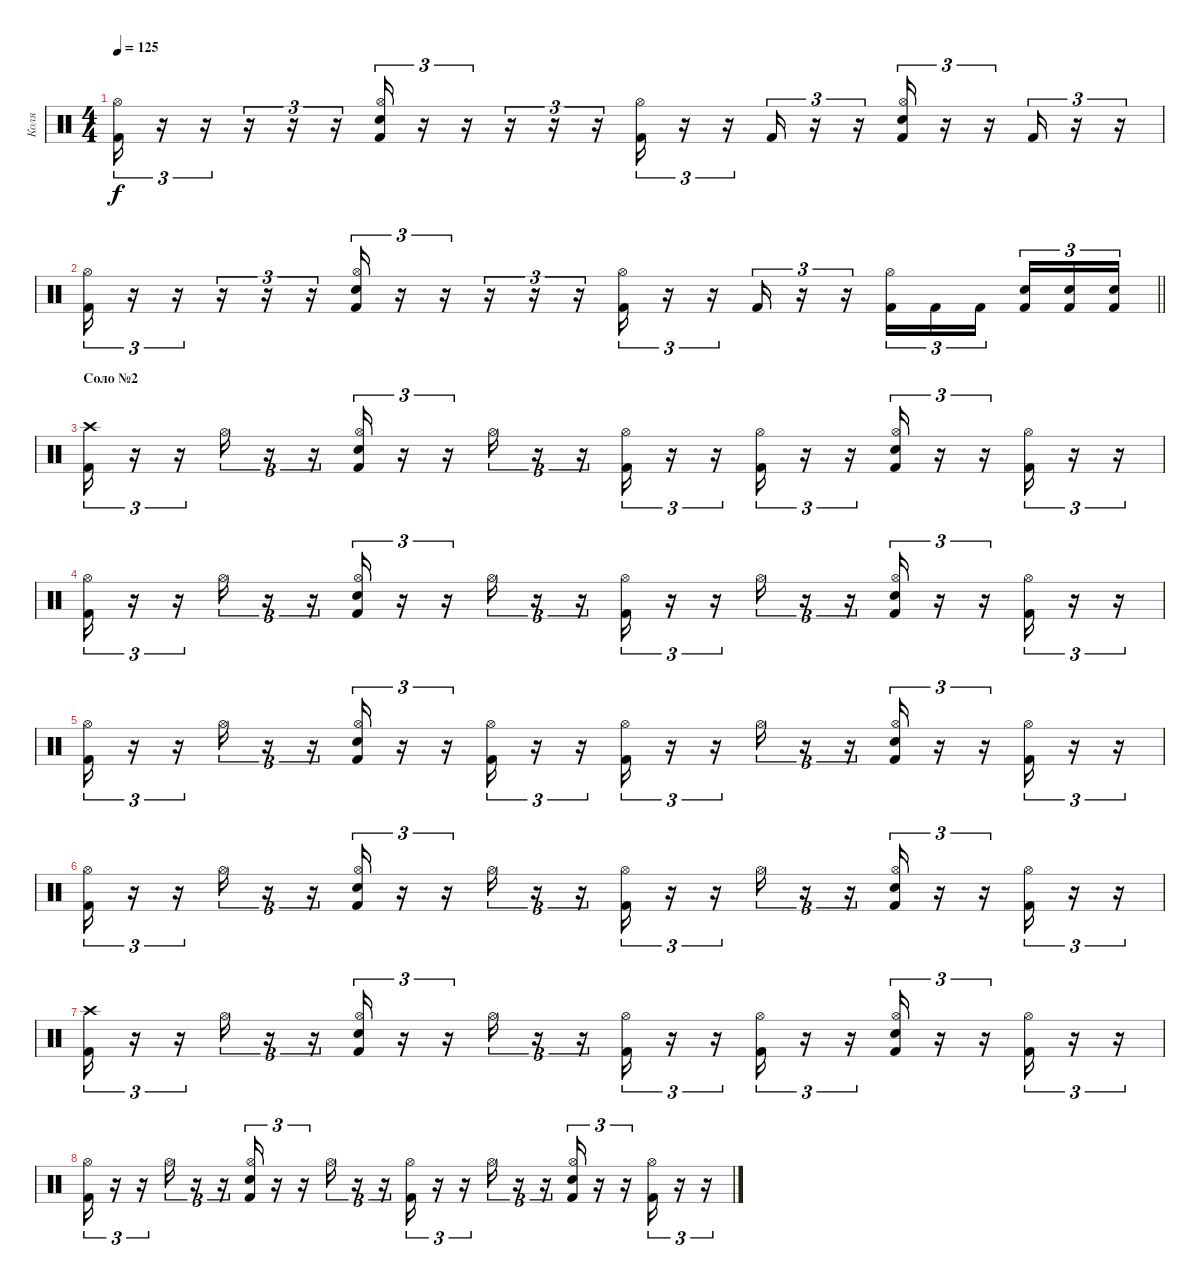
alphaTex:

\track ("Коля" "Коля") {instrument percussion}
\staff {score}
\articulation defaults
\ts (4 4)
\tempo 125
\clef neutral
\ks c
("Kick (hit) 2" "Hi-Hat (open)").16{tu (3 2) dy f} r.16{tu (3 2)} r.16{tu (3 2)} r.16{tu (3 2)} r.16{tu (3 2)} r.16{tu (3 2)} ("Kick (hit) 2" "Snare (hit) 2" "Hi-Hat (open)").16{tu (3 2)} r.16{tu (3 2)} r.16{tu (3 2)} r.16{tu (3 2)} r.16{tu (3 2)} r.16{tu (3 2)} ("Kick (hit) 2" "Hi-Hat (open)").16{tu (3 2)} r.16{tu (3 2)} r.16{tu (3 2)} "Kick (hit) 2".16{tu (3 2)} r.16{tu (3 2)} r.16{tu (3 2)} ("Kick (hit) 2" "Snare (hit) 2" "Hi-Hat (open)").16{tu (3 2)} r.16{tu (3 2)} r.16{tu (3 2)} "Kick (hit) 2".16{tu (3 2)} r.16{tu (3 2)} r.16{tu (3 2)} |
\barLineRight lightlight
("Kick (hit) 2" "Hi-Hat (open)").16{tu (3 2)} r.16{tu (3 2)} r.16{tu (3 2)} r.16{tu (3 2)} r.16{tu (3 2)} r.16{tu (3 2)} ("Kick (hit) 2" "Snare (hit) 2" "Hi-Hat (open)").16{tu (3 2)} r.16{tu (3 2)} r.16{tu (3 2)} r.16{tu (3 2)} r.16{tu (3 2)} r.16{tu (3 2)} ("Kick (hit) 2" "Hi-Hat (open)").16{tu (3 2)} r.16{tu (3 2)} r.16{tu (3 2)} "Kick (hit) 2".16{tu (3 2)} r.16{tu (3 2)} r.16{tu (3 2)} ("Kick (hit) 2" "Hi-Hat (open)").16{tu (3 2)} "Kick (hit) 2".16{tu (3 2)} "Kick (hit) 2".16{tu (3 2) beam splitsecondary} ("Kick (hit) 2" "Snare (hit) 2").16{tu (3 2)} ("Kick (hit) 2" "Snare (hit) 2").16{tu (3 2)} ("Kick (hit) 2" "Snare (hit) 2").16{tu (3 2)} |
\section ("" "Соло №2")
("Kick (hit) 2" "Crash high (hit)").16{tu (3 2)} r.16{tu (3 2)} r.16{tu (3 2)} "Hi-Hat (open)".16{tu (3 2)} r.16{tu (3 2)} r.16{tu (3 2)} ("Kick (hit) 2" "Snare (hit) 2" "Hi-Hat (open)").16{tu (3 2)} r.16{tu (3 2)} r.16{tu (3 2)} "Hi-Hat (open)".16{tu (3 2)} r.16{tu (3 2)} r.16{tu (3 2)} ("Kick (hit) 2" "Hi-Hat (open)").16{tu (3 2)} r.16{tu (3 2)} r.16{tu (3 2)} ("Kick (hit) 2" "Hi-Hat (open)").16{tu (3 2)} r.16{tu (3 2)} r.16{tu (3 2)} ("Kick (hit) 2" "Snare (hit) 2" "Hi-Hat (open)").16{tu (3 2)} r.16{tu (3 2)} r.16{tu (3 2)} ("Kick (hit) 2" "Hi-Hat (open)").16{tu (3 2)} r.16{tu (3 2)} r.16{tu (3 2)} |
("Kick (hit) 2" "Hi-Hat (open)").16{tu (3 2)} r.16{tu (3 2)} r.16{tu (3 2)} "Hi-Hat (open)".16{tu (3 2)} r.16{tu (3 2)} r.16{tu (3 2)} ("Kick (hit) 2" "Snare (hit) 2" "Hi-Hat (open)").16{tu (3 2)} r.16{tu (3 2)} r.16{tu (3 2)} "Hi-Hat (open)".16{tu (3 2)} r.16{tu (3 2)} r.16{tu (3 2)} ("Kick (hit) 2" "Hi-Hat (open)").16{tu (3 2)} r.16{tu (3 2)} r.16{tu (3 2)} "Hi-Hat (open)".16{tu (3 2)} r.16{tu (3 2)} r.16{tu (3 2)} ("Kick (hit) 2" "Snare (hit) 2" "Hi-Hat (open)").16{tu (3 2)} r.16{tu (3 2)} r.16{tu (3 2)} ("Kick (hit) 2" "Hi-Hat (open)").16{tu (3 2)} r.16{tu (3 2)} r.16{tu (3 2)} |
("Kick (hit) 2" "Hi-Hat (open)").16{tu (3 2)} r.16{tu (3 2)} r.16{tu (3 2)} "Hi-Hat (open)".16{tu (3 2)} r.16{tu (3 2)} r.16{tu (3 2)} ("Kick (hit) 2" "Snare (hit) 2" "Hi-Hat (open)").16{tu (3 2)} r.16{tu (3 2)} r.16{tu (3 2)} ("Kick (hit) 2" "Hi-Hat (open)").16{tu (3 2)} r.16{tu (3 2)} r.16{tu (3 2)} ("Kick (hit) 2" "Hi-Hat (open)").16{tu (3 2)} r.16{tu (3 2)} r.16{tu (3 2)} "Hi-Hat (open)".16{tu (3 2)} r.16{tu (3 2)} r.16{tu (3 2)} ("Kick (hit) 2" "Snare (hit) 2" "Hi-Hat (open)").16{tu (3 2)} r.16{tu (3 2)} r.16{tu (3 2)} ("Kick (hit) 2" "Hi-Hat (open)").16{tu (3 2)} r.16{tu (3 2)} r.16{tu (3 2)} |
("Kick (hit) 2" "Hi-Hat (open)").16{tu (3 2)} r.16{tu (3 2)} r.16{tu (3 2)} "Hi-Hat (open)".16{tu (3 2)} r.16{tu (3 2)} r.16{tu (3 2)} ("Kick (hit) 2" "Snare (hit) 2" "Hi-Hat (open)").16{tu (3 2)} r.16{tu (3 2)} r.16{tu (3 2)} "Hi-Hat (open)".16{tu (3 2)} r.16{tu (3 2)} r.16{tu (3 2)} ("Kick (hit) 2" "Hi-Hat (open)").16{tu (3 2)} r.16{tu (3 2)} r.16{tu (3 2)} "Hi-Hat (open)".16{tu (3 2)} r.16{tu (3 2)} r.16{tu (3 2)} ("Kick (hit) 2" "Snare (hit) 2" "Hi-Hat (open)").16{tu (3 2)} r.16{tu (3 2)} r.16{tu (3 2)} ("Kick (hit) 2" "Hi-Hat (open)").16{tu (3 2)} r.16{tu (3 2)} r.16{tu (3 2)} |
("Kick (hit) 2" "Crash high (hit)").16{tu (3 2)} r.16{tu (3 2)} r.16{tu (3 2)} "Hi-Hat (open)".16{tu (3 2)} r.16{tu (3 2)} r.16{tu (3 2)} ("Kick (hit) 2" "Snare (hit) 2" "Hi-Hat (open)").16{tu (3 2)} r.16{tu (3 2)} r.16{tu (3 2)} "Hi-Hat (open)".16{tu (3 2)} r.16{tu (3 2)} r.16{tu (3 2)} ("Kick (hit) 2" "Hi-Hat (open)").16{tu (3 2)} r.16{tu (3 2)} r.16{tu (3 2)} ("Kick (hit) 2" "Hi-Hat (open)").16{tu (3 2)} r.16{tu (3 2)} r.16{tu (3 2)} ("Kick (hit) 2" "Snare (hit) 2" "Hi-Hat (open)").16{tu (3 2)} r.16{tu (3 2)} r.16{tu (3 2)} ("Kick (hit) 2" "Hi-Hat (open)").16{tu (3 2)} r.16{tu (3 2)} r.16{tu (3 2)} |
("Kick (hit) 2" "Hi-Hat (open)").16{tu (3 2)} r.16{tu (3 2)} r.16{tu (3 2)} "Hi-Hat (open)".16{tu (3 2)} r.16{tu (3 2)} r.16{tu (3 2)} ("Kick (hit) 2" "Snare (hit) 2" "Hi-Hat (open)").16{tu (3 2)} r.16{tu (3 2)} r.16{tu (3 2)} "Hi-Hat (open)".16{tu (3 2)} r.16{tu (3 2)} r.16{tu (3 2)} ("Kick (hit) 2" "Hi-Hat (open)").16{tu (3 2)} r.16{tu (3 2)} r.16{tu (3 2)} "Hi-Hat (open)".16{tu (3 2)} r.16{tu (3 2)} r.16{tu (3 2)} ("Kick (hit) 2" "Snare (hit) 2" "Hi-Hat (open)").16{tu (3 2)} r.16{tu (3 2)} r.16{tu (3 2)} ("Kick (hit) 2" "Hi-Hat (open)").16{tu (3 2)} r.16{tu (3 2)} r.16{tu (3 2)}
